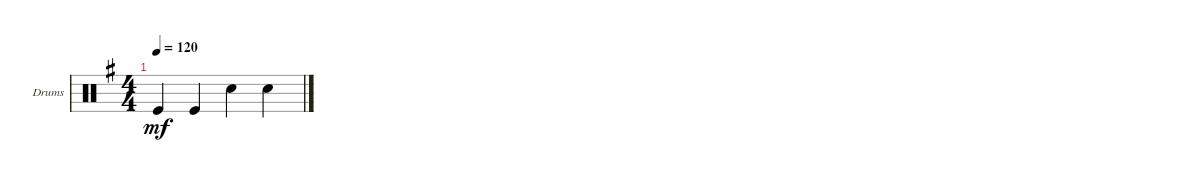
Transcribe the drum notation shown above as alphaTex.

\defaultSystemsLayout 4
\bracketExtendMode groupsimilarinstruments
\firstSystemTrackNameOrientation horizontal
\otherSystemsTrackNameOrientation horizontal
\track ("Drumkit" "Drums") {instrument percussion}
\staff {score}
\articulation defaults
\ts (4 4)
\tempo 120
\clef neutral
\ks g "Kick (hit)".4{dy mf} "Kick (hit)".4 "Snare (hit) 2".4 "Snare (hit) 2".4
